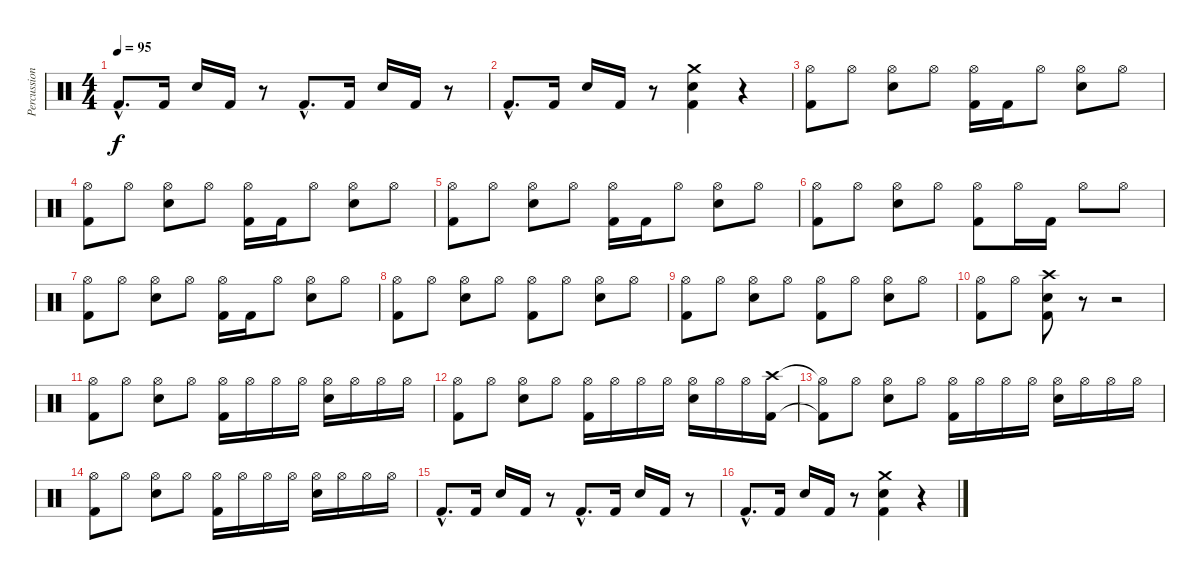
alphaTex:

\track ("Percussion" "Percussion") {instrument percussion}
\staff {score}
\articulation defaults
\ts (4 4)
\tempo 95
\clef neutral
\ks c "Kick (hit) 2"{hac}.8{d dy f} "Kick (hit) 2".16 "Snare (hit) 2".16 "Kick (hit) 2".16
r.8 "Kick (hit) 2"{hac}.8{d} "Kick (hit) 2".16 "Snare (hit) 2".16 "Kick (hit) 2".16 r.8 |
"Kick (hit) 2"{hac}.8{d} "Kick (hit) 2".16 "Snare (hit) 2".16 "Kick (hit) 2".16 r.8 ("Crash medium (hit)" "Snare (hit) 2" "Kick (hit) 2").4 r.4 |
("Hi-Hat (open)" "Kick (hit) 2").8 "Hi-Hat (open)".8 ("Hi-Hat (open)" "Snare (hit) 2").8 "Hi-Hat (open)".8 ("Hi-Hat (open)" "Kick (hit) 2").16 "Kick (hit) 2".16 "Hi-Hat (open)".8 ("Hi-Hat (open)" "Snare (hit) 2").8 "Hi-Hat (open)".8 |
("Hi-Hat (open)" "Kick (hit) 2").8 "Hi-Hat (open)".8 ("Hi-Hat (open)" "Snare (hit) 2").8 "Hi-Hat (open)".8 ("Hi-Hat (open)" "Kick (hit) 2").16 "Kick (hit) 2".16 "Hi-Hat (open)".8 ("Hi-Hat (open)" "Snare (hit) 2").8 "Hi-Hat (open)".8 |
("Hi-Hat (open)" "Kick (hit) 2").8 "Hi-Hat (open)".8 ("Hi-Hat (open)" "Snare (hit) 2").8 "Hi-Hat (open)".8 ("Hi-Hat (open)" "Kick (hit) 2").16 "Kick (hit) 2".16 "Hi-Hat (open)".8 ("Hi-Hat (open)" "Snare (hit) 2").8 "Hi-Hat (open)".8 |
("Hi-Hat (open)" "Kick (hit) 2").8 "Hi-Hat (open)".8 ("Hi-Hat (open)" "Snare (hit) 2").8 "Hi-Hat (open)".8 ("Hi-Hat (open)" "Kick (hit) 2").8 "Hi-Hat (open)".16 "Kick (hit) 2".16 "Hi-Hat (open)".8 "Hi-Hat (open)".8 |
("Hi-Hat (open)" "Kick (hit) 2").8 "Hi-Hat (open)".8 ("Hi-Hat (open)" "Snare (hit) 2").8 "Hi-Hat (open)".8 ("Hi-Hat (open)" "Kick (hit) 2").16 "Kick (hit) 2".16 "Hi-Hat (open)".8 ("Hi-Hat (open)" "Snare (hit) 2").8 "Hi-Hat (open)".8 |
("Hi-Hat (open)" "Kick (hit) 2").8 "Hi-Hat (open)".8 ("Hi-Hat (open)" "Snare (hit) 2").8 "Hi-Hat (open)".8 ("Hi-Hat (open)" "Kick (hit) 2").8 "Hi-Hat (open)".8 ("Hi-Hat (open)" "Snare (hit) 2").8 "Hi-Hat (open)".8 |
("Hi-Hat (open)" "Kick (hit) 2").8 "Hi-Hat (open)".8 ("Hi-Hat (open)" "Snare (hit) 2").8 "Hi-Hat (open)".8 ("Hi-Hat (open)" "Kick (hit) 2").8 "Hi-Hat (open)".8 ("Hi-Hat (open)" "Snare (hit) 2").8 "Hi-Hat (open)".8 |
("Hi-Hat (open)" "Kick (hit) 2").8 "Hi-Hat (open)".8 ("Crash high (hit)" "Snare (hit) 2" "Kick (hit) 2").8 r.8 r.2 |
("Hi-Hat (open)" "Kick (hit) 2").8 "Hi-Hat (open)".8 ("Hi-Hat (open)" "Snare (hit) 2").8 "Hi-Hat (open)".8 ("Hi-Hat (open)" "Kick (hit) 2").16 "Hi-Hat (open)".16 "Hi-Hat (open)".16 "Hi-Hat (open)".16 ("Hi-Hat (open)" "Snare (hit) 2").16 "Hi-Hat (open)".16 "Hi-Hat (open)".16 "Hi-Hat (open)".16 |
("Hi-Hat (open)" "Kick (hit) 2").8 "Hi-Hat (open)".8 ("Hi-Hat (open)" "Snare (hit) 2").8 "Hi-Hat (open)".8 ("Hi-Hat (open)" "Kick (hit) 2").16 "Hi-Hat (open)".16 "Hi-Hat (open)".16 "Hi-Hat (open)".16 ("Hi-Hat (open)" "Snare (hit) 2").16 "Hi-Hat (open)".16 "Hi-Hat (open)".16 ("Crash high (hit)" "Kick (hit) 2").16 |
("Hi-Hat (open)"{t} "Kick (hit) 2"{t}).8 "Hi-Hat (open)".8 ("Hi-Hat (open)" "Snare (hit) 2").8 "Hi-Hat (open)".8 ("Hi-Hat (open)" "Kick (hit) 2").16 "Hi-Hat (open)".16 "Hi-Hat (open)".16 "Hi-Hat (open)".16 ("Hi-Hat (open)" "Snare (hit) 2").16 "Hi-Hat (open)".16 "Hi-Hat (open)".16 "Hi-Hat (open)".16 |
("Hi-Hat (open)" "Kick (hit) 2").8 "Hi-Hat (open)".8 ("Hi-Hat (open)" "Snare (hit) 2").8 "Hi-Hat (open)".8 ("Hi-Hat (open)" "Kick (hit) 2").16 "Hi-Hat (open)".16 "Hi-Hat (open)".16 "Hi-Hat (open)".16 ("Hi-Hat (open)" "Snare (hit) 2").16 "Hi-Hat (open)".16 "Hi-Hat (open)".16 "Hi-Hat (open)".16 |
"Kick (hit) 2"{hac}.8{d} "Kick (hit) 2".16 "Snare (hit) 2".16 "Kick (hit) 2".16 r.8 "Kick (hit) 2"{hac}.8{d} "Kick (hit) 2".16 "Snare (hit) 2".16 "Kick (hit) 2".16 r.8 |
"Kick (hit) 2"{hac}.8{d} "Kick (hit) 2".16 "Snare (hit) 2".16 "Kick (hit) 2".16 r.8 ("Crash medium (hit)" "Snare (hit) 2" "Kick (hit) 2").4 r.4
